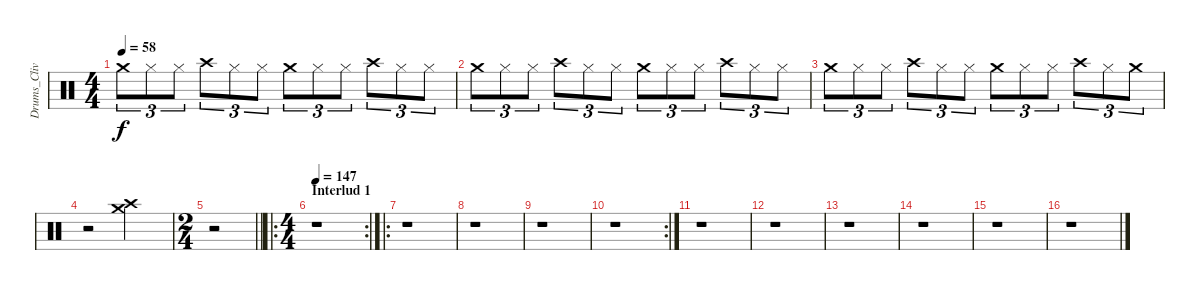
\track ("Drums_CliveBurr" "Drums_Cliv") {instrument percussion}
\staff {score}
\articulation defaults
\ts (4 4)
\tempo 58
\clef neutral
\ks c "Crash medium (hit)".8{tu (3 2) dy f} "Hi-Hat (closed)".8{tu (3 2)} "Hi-Hat (closed)".8{tu (3 2)} "Crash high (hit)".8{tu (3 2)} "Hi-Hat (closed)".8{tu (3 2)} "Hi-Hat (closed)".8{tu (3 2)} "Crash medium (hit)".8{tu (3 2)} "Hi-Hat (closed)".8{tu (3 2)} "Hi-Hat (closed)".8{tu (3 2)} "Crash high (hit)".8{tu (3 2)} "Hi-Hat (closed)".8{tu (3 2)} "Hi-Hat (closed)".8{tu (3 2)}
|
"Crash medium (hit)".8{tu (3 2)} "Hi-Hat (closed)".8{tu (3 2)} "Hi-Hat (closed)".8{tu (3 2)} "Crash high (hit)".8{tu (3 2)} "Hi-Hat (closed)".8{tu (3 2)} "Hi-Hat (closed)".8{tu (3 2)} "Crash medium (hit)".8{tu (3 2)} "Hi-Hat (closed)".8{tu (3 2)} "Hi-Hat (closed)".8{tu (3 2)} "Crash high (hit)".8{tu (3 2)} "Hi-Hat (closed)".8{tu (3 2)} "Hi-Hat (closed)".8{tu (3 2)} |
"Crash medium (hit)".8{tu (3 2)} "Hi-Hat (closed)".8{tu (3 2)} "Hi-Hat (closed)".8{tu (3 2)} "Crash high (hit)".8{tu (3 2)} "Hi-Hat (closed)".8{tu (3 2)} "Hi-Hat (closed)".8{tu (3 2)} "Crash medium (hit)".8{tu (3 2)} "Hi-Hat (closed)".8{tu (3 2)} "Hi-Hat (closed)".8{tu (3 2)} "Crash high (hit)".8{tu (3 2)} "Hi-Hat (closed)".8{tu (3 2)} "Crash medium (hit)".8{tu (3 2)} |
r.2 ("Crash medium (hit)" "Crash high (hit)").2 |
\ts (2 4)
\barLineRight lightlight
r.2 |
\ro
\rc 2
\ts (4 4)
\section ("" "Interlud 1")
\tempo 147
r.1 |
\ro
r.1 |
r.1 |
r.1 |
\rc 2
r.1 |
r.1 |
r.1 |
r.1 |
r.1 |
r.1 |
r.1
